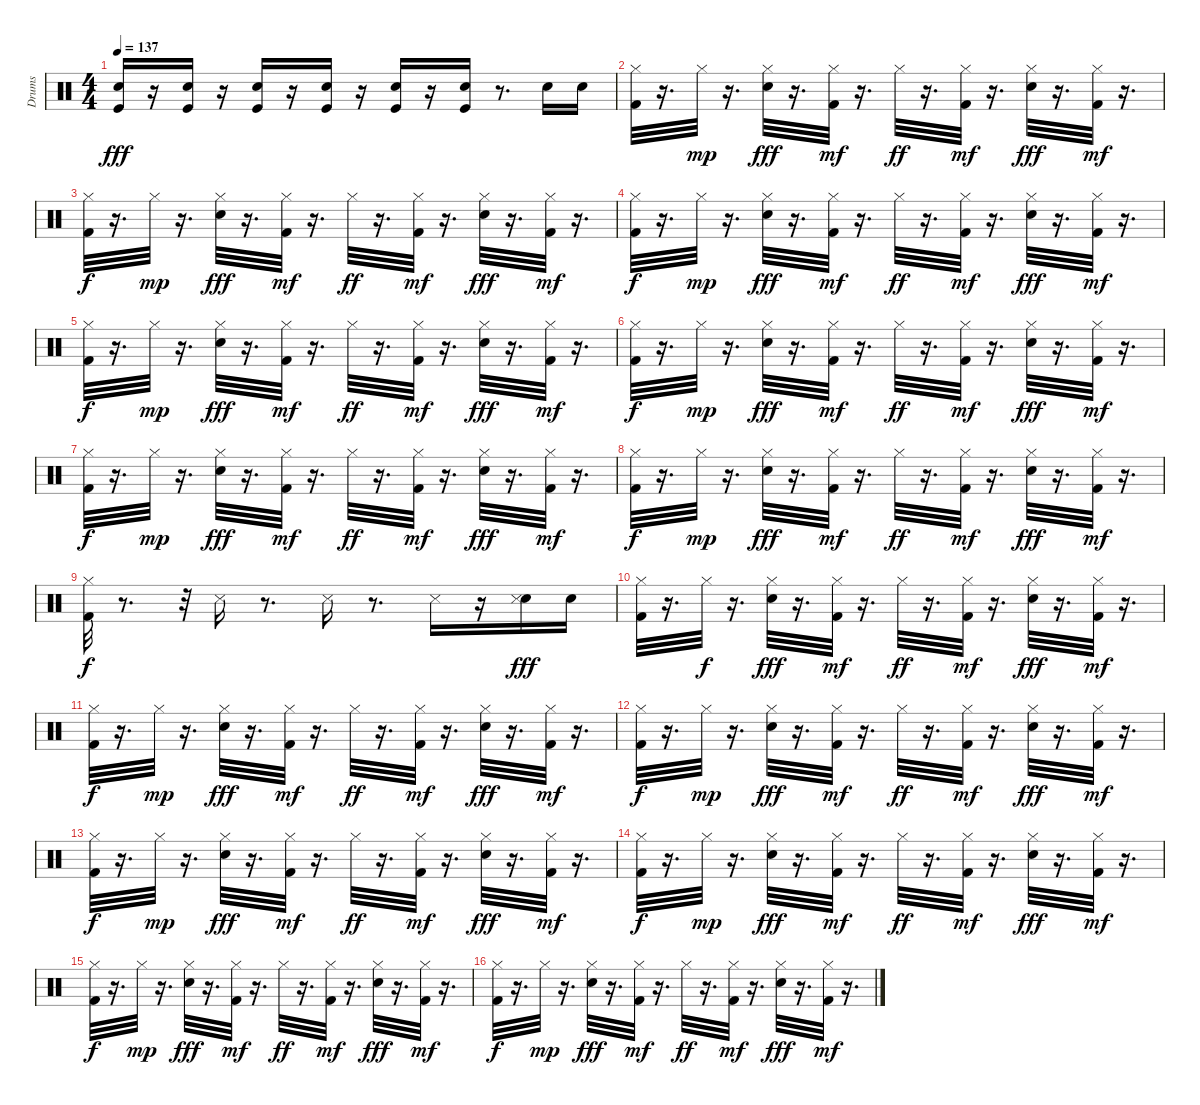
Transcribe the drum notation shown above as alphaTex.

\track ("Drums" "Drums") {instrument percussion}
\staff {score}
\articulation defaults
\ts (4 4)
\tempo 137
\clef neutral
\ks c
("Kick (hit)" "Snare (hit) 2").16{dy fff} r.16 ("Kick (hit)" "Snare (hit) 2").16 r.16 ("Kick (hit)" "Snare (hit) 2").16 r.16 ("Kick (hit)" "Snare (hit) 2").16 r.16 ("Kick (hit)" "Snare (hit) 2").16 r.16 ("Snare (hit) 2" "Kick (hit)").16 r.8{d} "Electric Snare (hit)".16 "Snare (hit) 2".16 |
("Hi-Hat (closed)" "Kick (hit) 2").32 r.16{d} "Hi-Hat (closed)".32{dy mp} r.16{d} ("Hi-Hat (closed)" "Snare (hit) 2").32{dy fff} r.16{d} ("Hi-Hat (closed)" "Kick (hit) 2").32{dy mf} r.16{d} "Hi-Hat (closed)".32{dy ff} r.16{d} ("Hi-Hat (closed)" "Kick (hit) 2").32{dy mf} r.16{d} ("Hi-Hat (closed)" "Snare (hit) 2").32{dy fff} r.16{d} ("Hi-Hat (closed)" "Kick (hit) 2").32{dy mf} r.16{d} |
("Hi-Hat (closed)" "Kick (hit) 2").32{dy f} r.16{d} "Hi-Hat (closed)".32{dy mp} r.16{d} ("Hi-Hat (closed)" "Snare (hit) 2").32{dy fff} r.16{d} ("Hi-Hat (closed)" "Kick (hit) 2").32{dy mf} r.16{d} "Hi-Hat (closed)".32{dy ff} r.16{d} ("Hi-Hat (closed)" "Kick (hit) 2").32{dy mf} r.16{d} ("Hi-Hat (closed)" "Snare (hit) 2").32{dy fff} r.16{d} ("Hi-Hat (closed)" "Kick (hit) 2").32{dy mf} r.16{d} |
("Hi-Hat (closed)" "Kick (hit) 2").32{dy f} r.16{d} "Hi-Hat (closed)".32{dy mp} r.16{d} ("Hi-Hat (closed)" "Snare (hit) 2").32{dy fff} r.16{d} ("Hi-Hat (closed)" "Kick (hit) 2").32{dy mf} r.16{d} "Hi-Hat (closed)".32{dy ff} r.16{d} ("Hi-Hat (closed)" "Kick (hit) 2").32{dy mf} r.16{d} ("Hi-Hat (closed)" "Snare (hit) 2").32{dy fff} r.16{d} ("Hi-Hat (closed)" "Kick (hit) 2").32{dy mf} r.16{d} |
("Hi-Hat (closed)" "Kick (hit) 2").32{dy f} r.16{d} "Hi-Hat (closed)".32{dy mp} r.16{d} ("Hi-Hat (closed)" "Snare (hit) 2").32{dy fff} r.16{d} ("Hi-Hat (closed)" "Kick (hit) 2").32{dy mf} r.16{d} "Hi-Hat (closed)".32{dy ff} r.16{d} ("Hi-Hat (closed)" "Kick (hit) 2").32{dy mf} r.16{d} ("Hi-Hat (closed)" "Snare (hit) 2").32{dy fff} r.16{d} ("Hi-Hat (closed)" "Kick (hit) 2").32{dy mf} r.16{d} |
("Hi-Hat (closed)" "Kick (hit) 2").32{dy f} r.16{d} "Hi-Hat (closed)".32{dy mp} r.16{d} ("Hi-Hat (closed)" "Snare (hit) 2").32{dy fff} r.16{d} ("Hi-Hat (closed)" "Kick (hit) 2").32{dy mf} r.16{d} "Hi-Hat (closed)".32{dy ff} r.16{d} ("Hi-Hat (closed)" "Kick (hit) 2").32{dy mf} r.16{d} ("Hi-Hat (closed)" "Snare (hit) 2").32{dy fff} r.16{d} ("Hi-Hat (closed)" "Kick (hit) 2").32{dy mf} r.16{d} |
("Hi-Hat (closed)" "Kick (hit) 2").32{dy f} r.16{d} "Hi-Hat (closed)".32{dy mp} r.16{d} ("Hi-Hat (closed)" "Snare (hit) 2").32{dy fff} r.16{d} ("Hi-Hat (closed)" "Kick (hit) 2").32{dy mf} r.16{d} "Hi-Hat (closed)".32{dy ff} r.16{d} ("Hi-Hat (closed)" "Kick (hit) 2").32{dy mf} r.16{d} ("Hi-Hat (closed)" "Snare (hit) 2").32{dy fff} r.16{d} ("Hi-Hat (closed)" "Kick (hit) 2").32{dy mf} r.16{d} |
("Hi-Hat (closed)" "Kick (hit) 2").32{dy f} r.16{d} "Hi-Hat (closed)".32{dy mp} r.16{d} ("Hi-Hat (closed)" "Snare (hit) 2").32{dy fff} r.16{d} ("Hi-Hat (closed)" "Kick (hit) 2").32{dy mf} r.16{d} "Hi-Hat (closed)".32{dy ff} r.16{d} ("Hi-Hat (closed)" "Kick (hit) 2").32{dy mf} r.16{d} ("Hi-Hat (closed)" "Snare (hit) 2").32{dy fff} r.16{d} ("Hi-Hat (closed)" "Kick (hit) 2").32{dy mf} r.16{d} |
("Hi-Hat (closed)" "Kick (hit) 2").32{dy f} r.8{d} r.32 "Snare (side stick) 3".16 r.8{d} "Snare (side stick) 3".16 r.8{d} "Snare (side stick) 3".16 r.16 ("Snare (hit) 2" "Snare (side stick) 3").16{dy fff} "Electric Snare (hit)".16 |
("Hi-Hat (closed)" "Kick (hit) 2").32 r.16{d} "Hi-Hat (closed)".32{dy f} r.16{d} ("Hi-Hat (closed)" "Snare (hit) 2").32{dy fff} r.16{d} ("Hi-Hat (closed)" "Kick (hit) 2").32{dy mf} r.16{d} "Hi-Hat (closed)".32{dy ff} r.16{d} ("Hi-Hat (closed)" "Kick (hit) 2").32{dy mf} r.16{d} ("Hi-Hat (closed)" "Snare (hit) 2").32{dy fff} r.16{d} ("Hi-Hat (closed)" "Kick (hit) 2").32{dy mf} r.16{d} |
("Hi-Hat (closed)" "Kick (hit) 2").32{dy f} r.16{d} "Hi-Hat (closed)".32{dy mp} r.16{d} ("Hi-Hat (closed)" "Snare (hit) 2").32{dy fff} r.16{d} ("Hi-Hat (closed)" "Kick (hit) 2").32{dy mf} r.16{d} "Hi-Hat (closed)".32{dy ff} r.16{d} ("Hi-Hat (closed)" "Kick (hit) 2").32{dy mf} r.16{d} ("Hi-Hat (closed)" "Snare (hit) 2").32{dy fff} r.16{d} ("Hi-Hat (closed)" "Kick (hit) 2").32{dy mf} r.16{d} |
("Hi-Hat (closed)" "Kick (hit) 2").32{dy f} r.16{d} "Hi-Hat (closed)".32{dy mp} r.16{d} ("Hi-Hat (closed)" "Snare (hit) 2").32{dy fff} r.16{d} ("Hi-Hat (closed)" "Kick (hit) 2").32{dy mf} r.16{d} "Hi-Hat (closed)".32{dy ff} r.16{d} ("Hi-Hat (closed)" "Kick (hit) 2").32{dy mf} r.16{d} ("Hi-Hat (closed)" "Snare (hit) 2").32{dy fff} r.16{d} ("Hi-Hat (closed)" "Kick (hit) 2").32{dy mf} r.16{d} |
("Hi-Hat (closed)" "Kick (hit) 2").32{dy f} r.16{d} "Hi-Hat (closed)".32{dy mp} r.16{d} ("Hi-Hat (closed)" "Snare (hit) 2").32{dy fff} r.16{d} ("Hi-Hat (closed)" "Kick (hit) 2").32{dy mf} r.16{d} "Hi-Hat (closed)".32{dy ff} r.16{d} ("Hi-Hat (closed)" "Kick (hit) 2").32{dy mf} r.16{d} ("Hi-Hat (closed)" "Snare (hit) 2").32{dy fff} r.16{d} ("Hi-Hat (closed)" "Kick (hit) 2").32{dy mf} r.16{d} |
("Hi-Hat (closed)" "Kick (hit) 2").32{dy f} r.16{d} "Hi-Hat (closed)".32{dy mp} r.16{d} ("Hi-Hat (closed)" "Snare (hit) 2").32{dy fff} r.16{d} ("Hi-Hat (closed)" "Kick (hit) 2").32{dy mf} r.16{d} "Hi-Hat (closed)".32{dy ff} r.16{d} ("Hi-Hat (closed)" "Kick (hit) 2").32{dy mf} r.16{d} ("Hi-Hat (closed)" "Snare (hit) 2").32{dy fff} r.16{d} ("Hi-Hat (closed)" "Kick (hit) 2").32{dy mf} r.16{d} |
("Hi-Hat (closed)" "Kick (hit) 2").32{dy f} r.16{d} "Hi-Hat (closed)".32{dy mp} r.16{d} ("Hi-Hat (closed)" "Snare (hit) 2").32{dy fff} r.16{d} ("Hi-Hat (closed)" "Kick (hit) 2").32{dy mf} r.16{d} "Hi-Hat (closed)".32{dy ff} r.16{d} ("Hi-Hat (closed)" "Kick (hit) 2").32{dy mf} r.16{d} ("Hi-Hat (closed)" "Snare (hit) 2").32{dy fff} r.16{d} ("Hi-Hat (closed)" "Kick (hit) 2").32{dy mf} r.16{d} |
("Hi-Hat (closed)" "Kick (hit) 2").32{dy f} r.16{d} "Hi-Hat (closed)".32{dy mp} r.16{d} ("Hi-Hat (closed)" "Snare (hit) 2").32{dy fff} r.16{d} ("Hi-Hat (closed)" "Kick (hit) 2").32{dy mf} r.16{d} "Hi-Hat (closed)".32{dy ff} r.16{d} ("Hi-Hat (closed)" "Kick (hit) 2").32{dy mf} r.16{d} ("Hi-Hat (closed)" "Snare (hit) 2").32{dy fff} r.16{d} ("Hi-Hat (closed)" "Kick (hit) 2").32{dy mf} r.16{d}
